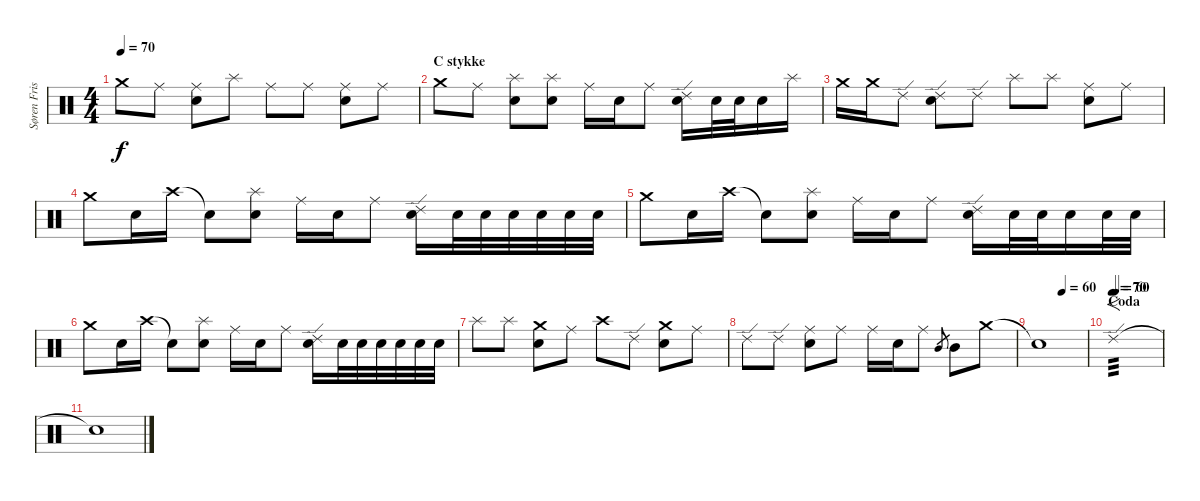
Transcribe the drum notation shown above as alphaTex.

\track ("Søren Fris (Drums)" "Søren Fris") {instrument percussion}
\staff {score}
\articulation defaults
\ts (4 4)
\tempo 70
\clef neutral
\ks c "Crash medium (hit)".8{dy f} "Ride (middle)".8
("Ride (middle)" "Snare (hit) 2").8 "Splash (hit)".8 "Ride (middle)".8 "Ride (middle)".8 ("Ride (middle)" "Snare (hit) 2").8 "Ride (middle)".8 |
\section ("" "C stykke")
"Crash medium (hit)".8 "Ride (middle)".8 ("Splash (hit)" "Snare (hit) 2").8 ("Splash (hit)" "Snare (hit) 2").8 "Ride (middle)".16 "Snare (hit) 2".16 "Ride (middle)".8 ("Snare (hit) 2" "Ride (edge) 2").16 "Snare (hit) 2".32 "Snare (hit) 2".32 "Snare (hit) 2".16 "Splash (hit)".16 |
"Crash medium (hit)".16 "Crash medium (hit)".16 "Ride (edge) 2".8 ("Ride (edge) 2" "Snare (hit) 2").8 "Ride (edge) 2".8 "Splash (hit)".8 "Splash (hit)".8 ("Ride (middle)" "Snare (hit) 2").8 "Ride (middle)".8 |
"Crash medium (hit)".8 "Snare (hit) 2".16 "Crash high (hit)".16 "Snare (hit)"{t}.8 ("Splash (hit)" "Snare (hit) 2").8 "Ride (middle)".16 "Snare (hit) 2".16 "Ride (middle)".8 ("Ride (edge) 2" "Snare (hit) 2").16 "Snare (hit) 2".32 "Snare (hit) 2".32 "Snare (hit) 2".32 "Snare (hit) 2".32 "Snare (hit) 2".32 "Snare (hit) 2".32 |
"Crash medium (hit)".8 "Snare (hit) 2".16 "Crash high (hit)".16 "Snare (hit)"{t}.8 ("Splash (hit)" "Snare (hit) 2").8 "Ride (middle)".16 "Snare (hit) 2".16 "Ride (middle)".8 ("Ride (edge) 2" "Snare (hit) 2").16 "Snare (hit) 2".32 "Snare (hit) 2".32 "Snare (hit) 2".16 "Snare (hit) 2".32 "Snare (hit) 2".32 |
"Crash medium (hit)".8 "Snare (hit) 2".16 "Crash high (hit)".16 "Snare (hit)"{t}.8 ("Splash (hit)" "Snare (hit) 2").8 "Ride (middle)".16 "Snare (hit) 2".16 "Ride (middle)".8 ("Ride (edge) 2" "Snare (hit) 2").16 "Snare (hit) 2".32 "Snare (hit) 2".32 "Snare (hit) 2".32 "Snare (hit) 2".32 "Snare (hit) 2".32 "Snare (hit) 2".32 |
"Splash (hit)".8 "Splash (hit)".8 ("Crash medium (hit)" "Snare (hit) 2").8 "Ride (middle)".8 "Crash high (hit)".8 "Ride (edge) 2".8 ("Crash medium (hit)" "Snare (hit) 2").8 "Ride (middle)".8 |
"Ride (edge) 2".8 "Ride (edge) 2".8 ("Ride (middle)" "Snare (hit) 2").8 "Ride (middle)".8 "Ride (middle)".16 "Snare (hit) 2".16 "Ride (middle)".8 "Mid Tom (hit)".8{gr} "Mid Tom (hit)".8 "Crash medium (hit)".8 |
\tempo (60 0.5)
"Snare (hit)"{t}.1 |
\section ("" "Coda")
\tempo 70
\tempo (60 0.0625)
"Ride (edge) 2".1{f tp 3} |
"Snare (hit)"{t}.1{volume 0}
